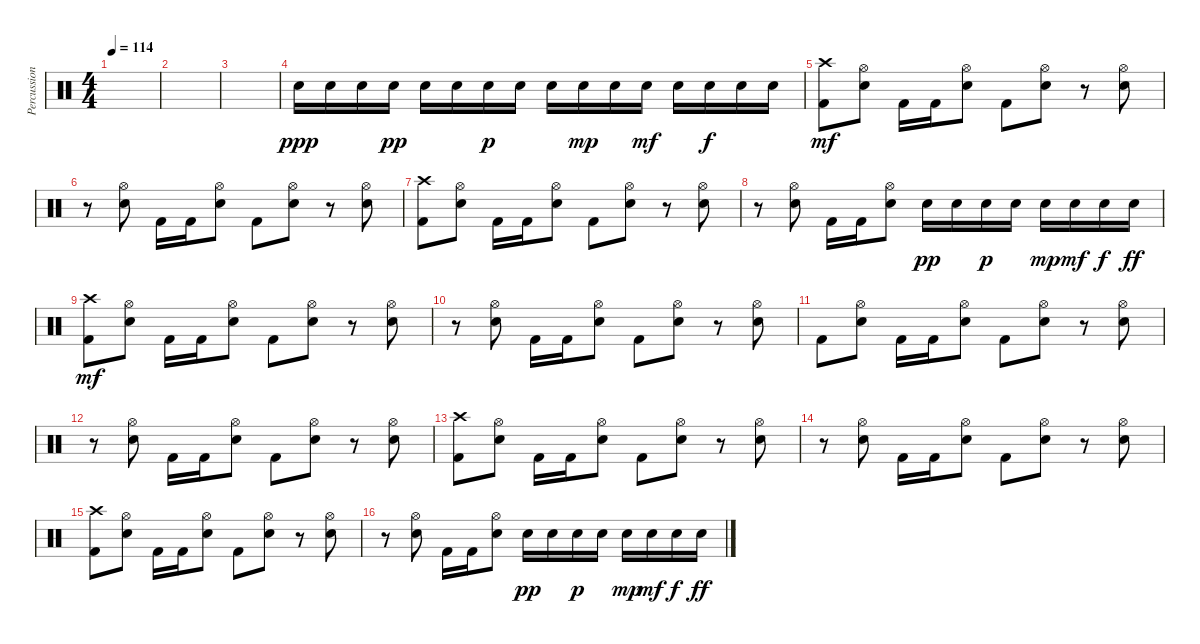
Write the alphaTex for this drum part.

\track ("Percussion" "Percussion") {instrument percussion}
\staff {score}
\articulation defaults
\ts (4 4)
\tempo 114
\clef neutral
\ks c
|
|
|
"Snare (hit) 2".16{dy ppp} "Snare (hit) 2".16 "Snare (hit) 2".16 "Snare (hit) 2".16{dy pp} "Snare (hit) 2".16 "Snare (hit) 2".16 "Snare (hit) 2".16{dy p} "Snare (hit) 2".16 "Snare (hit) 2".16 "Snare (hit) 2".16{dy mp} "Snare (hit) 2".16 "Snare (hit) 2".16{dy mf} "Snare (hit) 2".16 "Snare (hit) 2".16{dy f} "Snare (hit) 2".16 "Snare (hit) 2".16 |
("Crash high (hit)" "Kick (hit) 2").8{dy mf} ("Hi-Hat (open)" "Snare (hit) 2").8 "Kick (hit) 2".16 "Kick (hit) 2".16 ("Hi-Hat (open)" "Snare (hit) 2").8 "Kick (hit) 2".8 ("Hi-Hat (open)" "Snare (hit) 2").8 r.8 ("Hi-Hat (open)" "Snare (hit) 2").8 |
r.8 ("Hi-Hat (open)" "Snare (hit) 2").8 "Kick (hit) 2".16 "Kick (hit) 2".16 ("Hi-Hat (open)" "Snare (hit) 2").8 "Kick (hit) 2".8 ("Hi-Hat (open)" "Snare (hit) 2").8 r.8 ("Hi-Hat (open)" "Snare (hit) 2").8 |
("Crash high (hit)" "Kick (hit) 2").8 ("Hi-Hat (open)" "Snare (hit) 2").8 "Kick (hit) 2".16 "Kick (hit) 2".16 ("Hi-Hat (open)" "Snare (hit) 2").8 "Kick (hit) 2".8 ("Hi-Hat (open)" "Snare (hit) 2").8 r.8 ("Hi-Hat (open)" "Snare (hit) 2").8 |
r.8 ("Hi-Hat (open)" "Snare (hit) 2").8 "Kick (hit) 2".16 "Kick (hit) 2".16 ("Hi-Hat (open)" "Snare (hit) 2").8 "Snare (hit) 2".16{dy pp} "Snare (hit) 2".16 "Snare (hit) 2".16{dy p} "Snare (hit) 2".16 "Snare (hit) 2".16{dy mp} "Snare (hit) 2".16{dy mf} "Snare (hit) 2".16{dy f} "Snare (hit) 2".16{dy ff} |
("Crash high (hit)" "Kick (hit) 2").8{dy mf} ("Hi-Hat (open)" "Snare (hit) 2").8 "Kick (hit) 2".16 "Kick (hit) 2".16 ("Hi-Hat (open)" "Snare (hit) 2").8 "Kick (hit) 2".8 ("Hi-Hat (open)" "Snare (hit) 2").8 r.8 ("Hi-Hat (open)" "Snare (hit) 2").8 |
r.8 ("Hi-Hat (open)" "Snare (hit) 2").8 "Kick (hit) 2".16 "Kick (hit) 2".16 ("Hi-Hat (open)" "Snare (hit) 2").8 "Kick (hit) 2".8 ("Hi-Hat (open)" "Snare (hit) 2").8 r.8 ("Hi-Hat (open)" "Snare (hit) 2").8 |
"Kick (hit) 2".8 ("Hi-Hat (open)" "Snare (hit) 2").8 "Kick (hit) 2".16 "Kick (hit) 2".16 ("Hi-Hat (open)" "Snare (hit) 2").8 "Kick (hit) 2".8 ("Hi-Hat (open)" "Snare (hit) 2").8 r.8 ("Hi-Hat (open)" "Snare (hit) 2").8 |
r.8 ("Hi-Hat (open)" "Snare (hit) 2").8 "Kick (hit) 2".16 "Kick (hit) 2".16 ("Hi-Hat (open)" "Snare (hit) 2").8 "Kick (hit) 2".8 ("Hi-Hat (open)" "Snare (hit) 2").8 r.8 ("Hi-Hat (open)" "Snare (hit) 2").8 |
("Crash high (hit)" "Kick (hit) 2").8 ("Hi-Hat (open)" "Snare (hit) 2").8 "Kick (hit) 2".16 "Kick (hit) 2".16 ("Hi-Hat (open)" "Snare (hit) 2").8 "Kick (hit) 2".8 ("Hi-Hat (open)" "Snare (hit) 2").8 r.8 ("Hi-Hat (open)" "Snare (hit) 2").8 |
r.8 ("Hi-Hat (open)" "Snare (hit) 2").8 "Kick (hit) 2".16 "Kick (hit) 2".16 ("Hi-Hat (open)" "Snare (hit) 2").8 "Kick (hit) 2".8 ("Hi-Hat (open)" "Snare (hit) 2").8 r.8 ("Hi-Hat (open)" "Snare (hit) 2").8 |
("Crash high (hit)" "Kick (hit) 2").8 ("Hi-Hat (open)" "Snare (hit) 2").8 "Kick (hit) 2".16 "Kick (hit) 2".16 ("Hi-Hat (open)" "Snare (hit) 2").8 "Kick (hit) 2".8 ("Hi-Hat (open)" "Snare (hit) 2").8 r.8 ("Hi-Hat (open)" "Snare (hit) 2").8 |
r.8 ("Hi-Hat (open)" "Snare (hit) 2").8 "Kick (hit) 2".16 "Kick (hit) 2".16 ("Hi-Hat (open)" "Snare (hit) 2").8 "Snare (hit) 2".16{dy pp} "Snare (hit) 2".16 "Snare (hit) 2".16{dy p} "Snare (hit) 2".16 "Snare (hit) 2".16{dy mp} "Snare (hit) 2".16{dy mf} "Snare (hit) 2".16{dy f} "Snare (hit) 2".16{dy ff}
